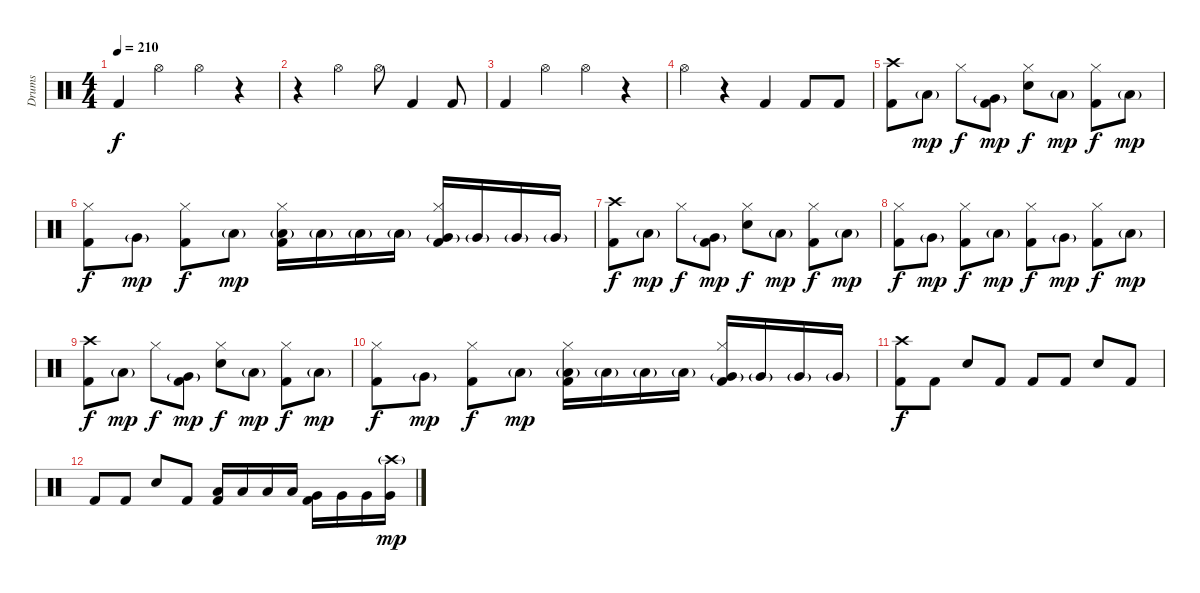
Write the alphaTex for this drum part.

\track ("Drums" "Drums") {instrument percussion}
\staff {score}
\articulation defaults
\ts (4 4)
\tempo 210
\clef neutral
\ks c "Kick (hit) 2".4{dy f} "Hi-Hat (open)".4 "Hi-Hat (open)".4
r.4 |
r.4 "Hi-Hat (open)".4 "Hi-Hat (open)".8 "Kick (hit) 2".4 "Kick (hit) 2".8 |
"Kick (hit) 2".4 "Hi-Hat (open)".4 "Hi-Hat (open)".4 r.4 |
"Hi-Hat (open)".4 r.4 "Kick (hit) 2".4 "Kick (hit) 2".8 "Kick (hit) 2".8 |
("Crash high (hit)" "Kick (hit) 2").8 "Low Tom (hit)"{g}.8{dy mp} "Hi-Hat (closed)".8{dy f} ("Very Low Tom (hit)"{g} "Kick (hit) 2").8{dy mp} ("Hi-Hat (closed)" "Snare (hit) 2").8{dy f} "Low Tom (hit)"{g}.8{dy mp} ("Hi-Hat (closed)" "Kick (hit) 2").8{dy f} "Low Tom (hit)"{g}.8{dy mp} |
("Hi-Hat (closed)" "Kick (hit) 2").8{dy f} "Very Low Tom (hit)"{g}.8{dy mp} ("Hi-Hat (closed)" "Kick (hit) 2").8{dy f} "Low Tom (hit)"{g}.8{dy mp} ("Hi-Hat (closed)" "Low Tom (hit)"{g} "Kick (hit) 2").16 "Low Tom (hit)"{g}.16 "Low Tom (hit)"{g}.16 "Low Tom (hit)"{g}.16 ("Hi-Hat (closed)" "Very Low Tom (hit)"{g} "Kick (hit) 2").16 "Very Low Tom (hit)"{g}.16 "Very Low Tom (hit)"{g}.16 "Very Low Tom (hit)"{g}.16 |
("Crash high (hit)" "Kick (hit) 2").8{dy f} "Low Tom (hit)"{g}.8{dy mp} "Hi-Hat (closed)".8{dy f} ("Very Low Tom (hit)"{g} "Kick (hit) 2").8{dy mp} ("Hi-Hat (closed)" "Snare (hit) 2").8{dy f} "Low Tom (hit)"{g}.8{dy mp} ("Hi-Hat (closed)" "Kick (hit) 2").8{dy f} "Low Tom (hit)"{g}.8{dy mp} |
("Hi-Hat (closed)" "Kick (hit) 2").8{dy f} "Very Low Tom (hit)"{g}.8{dy mp} ("Hi-Hat (closed)" "Kick (hit) 2").8{dy f} "Low Tom (hit)"{g}.8{dy mp} ("Hi-Hat (closed)" "Kick (hit) 2").8{dy f} "Very Low Tom (hit)"{g}.8{dy mp} ("Hi-Hat (closed)" "Kick (hit) 2").8{dy f} "Low Tom (hit)"{g}.8{dy mp} |
("Crash high (hit)" "Kick (hit) 2").8{dy f} "Low Tom (hit)"{g}.8{dy mp} "Hi-Hat (closed)".8{dy f} ("Very Low Tom (hit)"{g} "Kick (hit) 2").8{dy mp} ("Hi-Hat (closed)" "Snare (hit) 2").8{dy f} "Low Tom (hit)"{g}.8{dy mp} ("Hi-Hat (closed)" "Kick (hit) 2").8{dy f} "Low Tom (hit)"{g}.8{dy mp} |
("Hi-Hat (closed)" "Kick (hit) 2").8{dy f} "Very Low Tom (hit)"{g}.8{dy mp} ("Hi-Hat (closed)" "Kick (hit) 2").8{dy f} "Low Tom (hit)"{g}.8{dy mp} ("Hi-Hat (closed)" "Low Tom (hit)"{g} "Kick (hit) 2").16 "Low Tom (hit)"{g}.16 "Low Tom (hit)"{g}.16 "Low Tom (hit)"{g}.16 ("Hi-Hat (closed)" "Very Low Tom (hit)"{g} "Kick (hit) 2").16 "Very Low Tom (hit)"{g}.16 "Very Low Tom (hit)"{g}.16 "Very Low Tom (hit)"{g}.16 |
("Crash high (hit)" "Kick (hit) 2").8{dy f} "Kick (hit) 2".8 "Snare (hit) 2".8 "Kick (hit) 2".8 "Kick (hit) 2".8 "Kick (hit) 2".8 "Snare (hit) 2".8 "Kick (hit) 2".8 |
"Kick (hit) 2".8 "Kick (hit) 2".8 "Snare (hit) 2".8 "Kick (hit) 2".8 ("Low Tom (hit)" "Kick (hit) 2").16 "Low Tom (hit)".16 "Low Tom (hit)".16 "Low Tom (hit)".16 ("Very Low Tom (hit)" "Kick (hit) 2").16 "Very Low Tom (hit)".16 "Very Low Tom (hit)".16 ("Crash high (hit)"{g} "Very Low Tom (hit)").16{dy mp}
